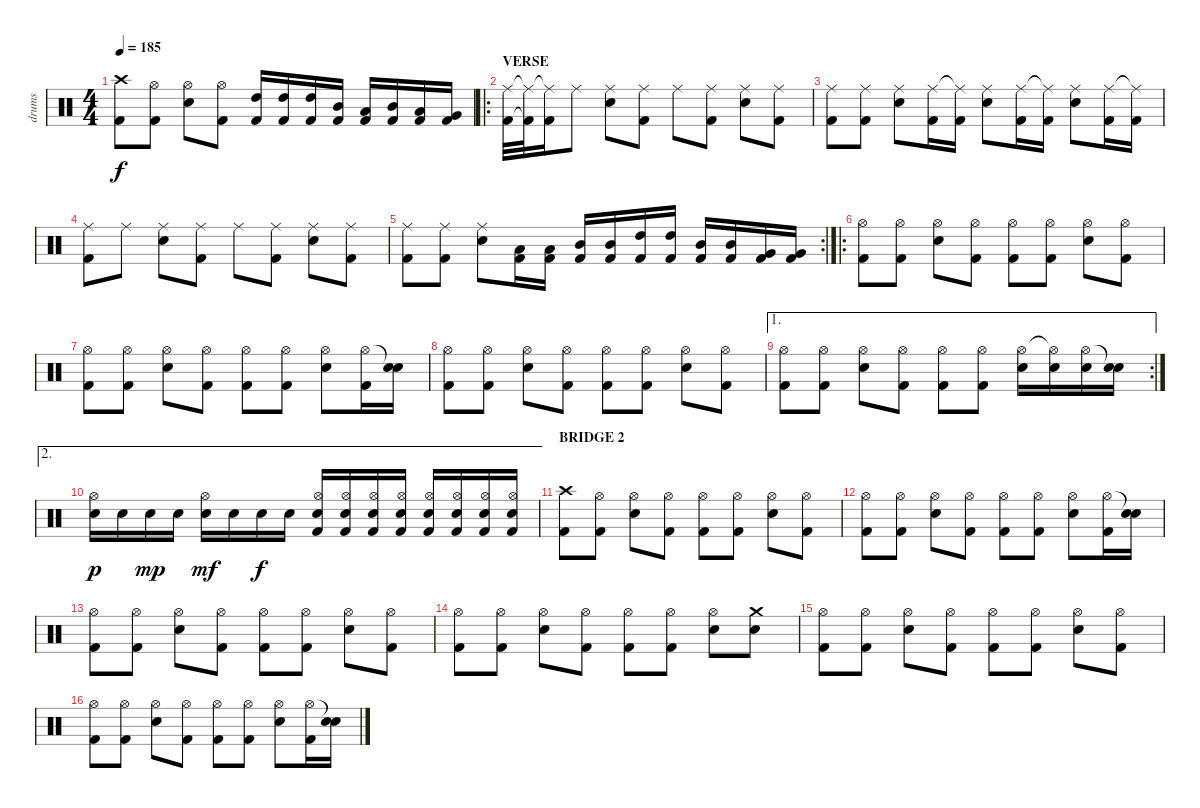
\track ("drums" "drums") {instrument percussion}
\staff {score}
\articulation defaults
\ts (4 4)
\tempo 185
\clef neutral
\ks c
("Crash high (hit)" "Kick (hit) 2").8{dy f} ("Hi-Hat (open)" "Kick (hit) 2").8 ("Hi-Hat (open)" "Electric Snare (hit)").8 ("Hi-Hat (open)" "Kick (hit) 2").8 ("High Tom (hit)" "Kick (hit) 2").16 ("High Tom (hit)" "Kick (hit) 2").16 ("High Tom (hit)" "Kick (hit) 2").16 ("Mid Tom (hit)" "Kick (hit) 2").16 ("Low Tom (hit)" "Kick (hit) 2").16 ("Mid Tom (hit)" "Kick (hit) 2").16 ("Low Tom (hit)" "Kick (hit) 2").16 ("Very Low Tom (hit)" "Kick (hit) 2").16 |
\ro
\section ("" "VERSE")
("Ride (middle)" "Kick (hit) 2").32 ("Ride (middle)"{t} "Kick (hit) 2"{t}).32 ("Ride (middle)"{t} "Kick (hit) 2").16 "Ride (middle)".8 ("Ride (middle)" "Electric Snare (hit)").8 ("Ride (middle)" "Kick (hit) 2").8 "Ride (middle)".8 ("Ride (middle)" "Kick (hit) 2").8 ("Ride (middle)" "Electric Snare (hit)").8 ("Ride (middle)" "Kick (hit) 2").8 |
("Ride (middle)" "Kick (hit) 2").8 ("Ride (middle)" "Kick (hit) 2").8 ("Ride (middle)" "Electric Snare (hit)").8 ("Ride (middle)" "Kick (hit) 2").16 ("Ride (middle)"{t} "Kick (hit) 2").16 ("Ride (middle)" "Electric Snare (hit)").8 ("Ride (middle)" "Kick (hit) 2").16 ("Ride (middle)"{t} "Kick (hit) 2").16 ("Ride (middle)" "Electric Snare (hit)").8 ("Ride (middle)" "Kick (hit) 2").16 ("Ride (middle)"{t} "Kick (hit) 2").16 |
("Ride (middle)" "Kick (hit) 2").8 "Ride (middle)".8 ("Ride (middle)" "Electric Snare (hit)").8 ("Ride (middle)" "Kick (hit) 2").8 "Ride (middle)".8 ("Ride (middle)" "Kick (hit) 2").8 ("Ride (middle)" "Electric Snare (hit)").8 ("Ride (middle)" "Kick (hit) 2").8 |
\rc 2
("Ride (middle)" "Kick (hit) 2").8 ("Ride (middle)" "Kick (hit) 2").8 ("Ride (middle)" "Electric Snare (hit)").8 ("Low Tom (hit)" "Kick (hit) 2").16 ("Low Tom (hit)" "Kick (hit) 2").16 ("Mid Tom (hit)" "Kick (hit) 2").16 ("Mid Tom (hit)" "Kick (hit) 2").16 ("High Tom (hit)" "Kick (hit) 2").16 ("High Tom (hit)" "Kick (hit) 2").16 ("Mid Tom (hit)" "Kick (hit) 2").16 ("Mid Tom (hit)" "Kick (hit) 2").16 ("Very Low Tom (hit)" "Kick (hit) 2").16 ("Very Low Tom (hit)" "Kick (hit) 2").16 |
\ro
("Hi-Hat (open)" "Kick (hit) 2").8 ("Hi-Hat (open)" "Kick (hit) 2").8 ("Hi-Hat (open)" "Electric Snare (hit)").8 ("Hi-Hat (open)" "Kick (hit) 2").8 ("Hi-Hat (open)" "Kick (hit) 2").8 ("Hi-Hat (open)" "Kick (hit) 2").8 ("Hi-Hat (open)" "Electric Snare (hit)").8 ("Hi-Hat (open)" "Kick (hit) 2").8 |
("Hi-Hat (open)" "Kick (hit) 2").8 ("Hi-Hat (open)" "Kick (hit) 2").8 ("Hi-Hat (open)" "Electric Snare (hit)").8 ("Hi-Hat (open)" "Kick (hit) 2").8 ("Hi-Hat (open)" "Kick (hit) 2").8 ("Hi-Hat (open)" "Kick (hit) 2").8 ("Hi-Hat (open)" "Electric Snare (hit)").8 ("Hi-Hat (open)" "Kick (hit) 2").16 ("Snare (hit)"{t} "Electric Snare (hit)").16 |
("Hi-Hat (open)" "Kick (hit) 2").8 ("Hi-Hat (open)" "Kick (hit) 2").8 ("Hi-Hat (open)" "Electric Snare (hit)").8 ("Hi-Hat (open)" "Kick (hit) 2").8 ("Hi-Hat (open)" "Kick (hit) 2").8 ("Hi-Hat (open)" "Kick (hit) 2").8 ("Hi-Hat (open)" "Electric Snare (hit)").8 ("Hi-Hat (open)" "Kick (hit) 2").8 |
\ae 1
\rc 2
("Hi-Hat (open)" "Kick (hit) 2").8 ("Hi-Hat (open)" "Kick (hit) 2").8 ("Hi-Hat (open)" "Electric Snare (hit)").8 ("Hi-Hat (open)" "Kick (hit) 2").8 ("Hi-Hat (open)" "Kick (hit) 2").8 ("Hi-Hat (open)" "Kick (hit) 2").8 ("Hi-Hat (open)" "Electric Snare (hit)").16 ("Hi-Hat (open)"{t} "Electric Snare (hit)").16 ("Hi-Hat (open)" "Electric Snare (hit)").16 ("Snare (hit)"{t} "Electric Snare (hit)").16 |
\ae 2
("Hi-Hat (open)" "Electric Snare (hit)").16{dy p} "Electric Snare (hit)".16 "Electric Snare (hit)".16{dy mp} "Electric Snare (hit)".16 ("Hi-Hat (open)" "Electric Snare (hit)").16{dy mf} "Electric Snare (hit)".16 "Electric Snare (hit)".16{dy f} "Electric Snare (hit)".16 ("Hi-Hat (open)" "Kick (hit) 2" "Electric Snare (hit)").16 ("Hi-Hat (open)" "Kick (hit) 2" "Electric Snare (hit)").16 ("Hi-Hat (open)" "Kick (hit) 2" "Electric Snare (hit)").16 ("Hi-Hat (open)" "Kick (hit) 2" "Electric Snare (hit)").16 ("Hi-Hat (open)" "Kick (hit) 2" "Electric Snare (hit)").16 ("Hi-Hat (open)" "Kick (hit) 2" "Electric Snare (hit)").16 ("Hi-Hat (open)" "Kick (hit) 2" "Electric Snare (hit)").16 ("Hi-Hat (open)" "Kick (hit) 2" "Electric Snare (hit)").16 |
\section ("" "BRIDGE 2")
("Crash high (hit)" "Kick (hit) 2").8 ("Hi-Hat (open)" "Kick (hit) 2").8 ("Hi-Hat (open)" "Electric Snare (hit)").8 ("Hi-Hat (open)" "Kick (hit) 2").8 ("Hi-Hat (open)" "Kick (hit) 2").8 ("Hi-Hat (open)" "Kick (hit) 2").8 ("Hi-Hat (open)" "Electric Snare (hit)").8 ("Hi-Hat (open)" "Kick (hit) 2").8 |
("Hi-Hat (open)" "Kick (hit) 2").8 ("Hi-Hat (open)" "Kick (hit) 2").8 ("Hi-Hat (open)" "Electric Snare (hit)").8 ("Hi-Hat (open)" "Kick (hit) 2").8 ("Hi-Hat (open)" "Kick (hit) 2").8 ("Hi-Hat (open)" "Kick (hit) 2").8 ("Hi-Hat (open)" "Electric Snare (hit)").8 ("Hi-Hat (open)" "Kick (hit) 2").16 ("Snare (hit)"{t} "Electric Snare (hit)").16 |
("Hi-Hat (open)" "Kick (hit) 2").8 ("Hi-Hat (open)" "Kick (hit) 2").8 ("Hi-Hat (open)" "Electric Snare (hit)").8 ("Hi-Hat (open)" "Kick (hit) 2").8 ("Hi-Hat (open)" "Kick (hit) 2").8 ("Hi-Hat (open)" "Kick (hit) 2").8 ("Hi-Hat (open)" "Electric Snare (hit)").8 ("Hi-Hat (open)" "Kick (hit) 2").8 |
("Hi-Hat (open)" "Kick (hit) 2").8 ("Hi-Hat (open)" "Kick (hit) 2").8 ("Hi-Hat (open)" "Electric Snare (hit)").8 ("Hi-Hat (open)" "Kick (hit) 2").8 ("Hi-Hat (open)" "Kick (hit) 2").8 ("Hi-Hat (open)" "Kick (hit) 2").8 ("Hi-Hat (open)" "Electric Snare (hit)").8 ("Crash medium (hit)" "Electric Snare (hit)").8 |
("Hi-Hat (open)" "Kick (hit) 2").8 ("Hi-Hat (open)" "Kick (hit) 2").8 ("Hi-Hat (open)" "Electric Snare (hit)").8 ("Hi-Hat (open)" "Kick (hit) 2").8 ("Hi-Hat (open)" "Kick (hit) 2").8 ("Hi-Hat (open)" "Kick (hit) 2").8 ("Hi-Hat (open)" "Electric Snare (hit)").8 ("Hi-Hat (open)" "Kick (hit) 2").8 |
("Hi-Hat (open)" "Kick (hit) 2").8 ("Hi-Hat (open)" "Kick (hit) 2").8 ("Hi-Hat (open)" "Electric Snare (hit)").8 ("Hi-Hat (open)" "Kick (hit) 2").8 ("Hi-Hat (open)" "Kick (hit) 2").8 ("Hi-Hat (open)" "Kick (hit) 2").8 ("Hi-Hat (open)" "Electric Snare (hit)").8 ("Hi-Hat (open)" "Kick (hit) 2").16 ("Snare (hit)"{t} "Electric Snare (hit)").16
